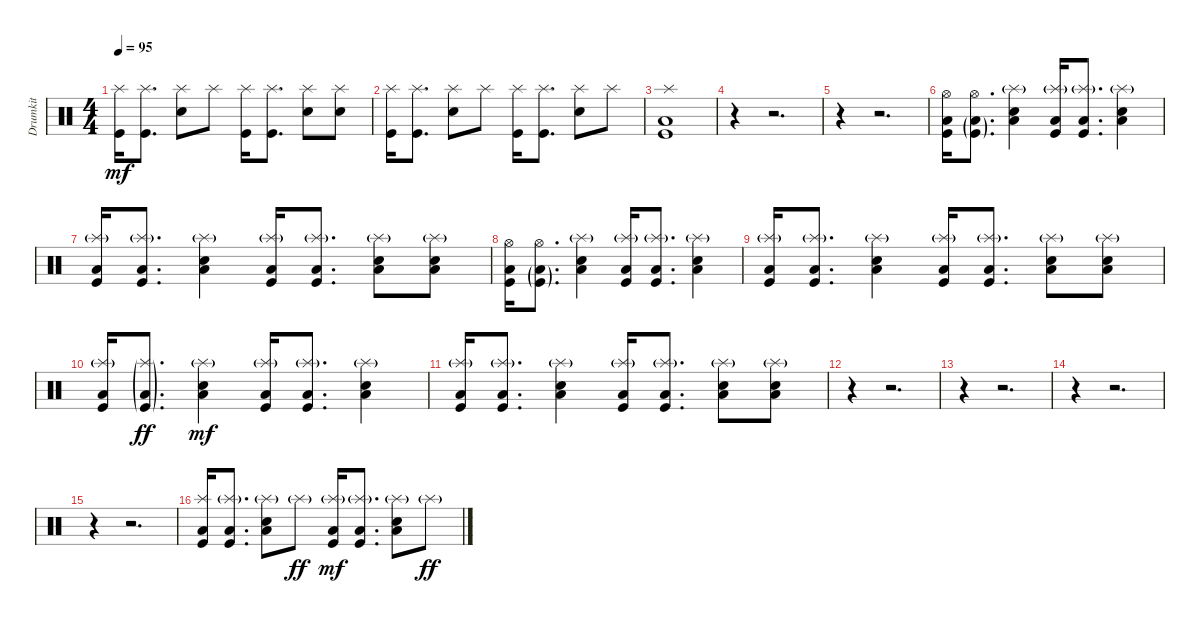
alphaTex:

\track ("Drumkit" "Drumkit") {instrument percussion}
\staff {score}
\articulation defaults
\ts (4 4)
\tempo 95
\clef neutral
\ks c
("Kick (hit)" "Splash (hit)").16{dy mf} ("Kick (hit)" "Splash (hit)").8{d} ("Snare (hit) 2" "Splash (hit)").8 "Splash (hit)".8 ("Kick (hit)" "Splash (hit)").16 ("Kick (hit)" "Splash (hit)").8{d} ("Snare (hit) 2" "Splash (hit)").8 ("Splash (hit)" "Snare (hit) 2").8 |
("Kick (hit)" "Splash (hit)").16 ("Kick (hit)" "Splash (hit)").8{d} ("Snare (hit) 2" "Splash (hit)").8 "Splash (hit)".8 ("Kick (hit)" "Splash (hit)").16 ("Kick (hit)" "Splash (hit)").8{d} ("Snare (hit) 2" "Splash (hit)").8 "Splash (hit)".8 |
("Kick (hit)" "Low Floor Tom (hit)" "Splash (hit)").1 |
r.4 r.2{d} |
r.4 r.2{d} |
("Kick (hit)" "Low Floor Tom (hit)" "Hi-Hat (open)").16 ("Low Floor Tom (hit)"{g} "Kick (hit)"{g} "Hi-Hat (open)").8{d} ("Snare (hit) 2" "Low Floor Tom (hit)" "Splash (hit)"{g}).4 ("Kick (hit)" "Low Floor Tom (hit)" "Splash (hit)"{g}).16 ("Kick (hit)" "Low Floor Tom (hit)" "Splash (hit)"{g}).8{d} ("Snare (hit) 2" "Low Floor Tom (hit)" "Splash (hit)"{g}).4 |
("Kick (hit)" "Low Floor Tom (hit)" "Splash (hit)"{g}).16 ("Kick (hit)" "Low Floor Tom (hit)" "Splash (hit)"{g}).8{d} ("Snare (hit) 2" "Low Floor Tom (hit)" "Splash (hit)"{g}).4 ("Kick (hit)" "Low Floor Tom (hit)" "Splash (hit)"{g}).16 ("Kick (hit)" "Low Floor Tom (hit)" "Splash (hit)"{g}).8{d} ("Snare (hit) 2" "Low Floor Tom (hit)" "Splash (hit)"{g}).8 ("Snare (hit) 2" "Low Floor Tom (hit)" "Splash (hit)"{g}).8 |
("Kick (hit)" "Low Floor Tom (hit)" "Hi-Hat (open)").16 ("Low Floor Tom (hit)"{g} "Kick (hit)"{g} "Hi-Hat (open)").8{d} ("Snare (hit) 2" "Low Floor Tom (hit)" "Splash (hit)"{g}).4 ("Kick (hit)" "Low Floor Tom (hit)" "Splash (hit)"{g}).16 ("Kick (hit)" "Low Floor Tom (hit)" "Splash (hit)"{g}).8{d} ("Snare (hit) 2" "Low Floor Tom (hit)" "Splash (hit)"{g}).4 |
("Kick (hit)" "Low Floor Tom (hit)" "Splash (hit)"{g}).16 ("Kick (hit)" "Low Floor Tom (hit)" "Splash (hit)"{g}).8{d} ("Snare (hit) 2" "Low Floor Tom (hit)" "Splash (hit)"{g}).4 ("Kick (hit)" "Low Floor Tom (hit)" "Splash (hit)"{g}).16 ("Kick (hit)" "Low Floor Tom (hit)" "Splash (hit)"{g}).8{d} ("Snare (hit) 2" "Low Floor Tom (hit)" "Splash (hit)"{g}).8 ("Snare (hit) 2" "Low Floor Tom (hit)" "Splash (hit)"{g}).8 |
("Kick (hit)" "Low Floor Tom (hit)" "Splash (hit)"{g}).16 ("Low Floor Tom (hit)"{g} "Kick (hit)"{g} "Splash (hit)"{g}).8{d dy ff} ("Snare (hit) 2" "Low Floor Tom (hit)" "Splash (hit)"{g}).4{dy mf} ("Kick (hit)" "Low Floor Tom (hit)" "Splash (hit)"{g}).16 ("Kick (hit)" "Low Floor Tom (hit)" "Splash (hit)"{g}).8{d} ("Snare (hit) 2" "Low Floor Tom (hit)" "Splash (hit)"{g}).4 |
("Kick (hit)" "Low Floor Tom (hit)" "Splash (hit)"{g}).16 ("Kick (hit)" "Low Floor Tom (hit)" "Splash (hit)"{g}).8{d} ("Snare (hit) 2" "Low Floor Tom (hit)" "Splash (hit)"{g}).4 ("Kick (hit)" "Low Floor Tom (hit)" "Splash (hit)"{g}).16 ("Kick (hit)" "Low Floor Tom (hit)" "Splash (hit)"{g}).8{d} ("Snare (hit) 2" "Low Floor Tom (hit)" "Splash (hit)"{g}).8 ("Snare (hit) 2" "Low Floor Tom (hit)" "Splash (hit)"{g}).8 |
r.4 r.2{d} |
r.4 r.2{d} |
r.4 r.2{d} |
r.4 r.2{d} |
("Kick (hit)" "Low Floor Tom (hit)" "Splash (hit)").16 ("Kick (hit)" "Low Floor Tom (hit)" "Splash (hit)"{g}).8{d} ("Snare (hit) 2" "Low Floor Tom (hit)" "Splash (hit)"{g}).8 "Splash (hit)"{g}.8{dy ff} ("Kick (hit)" "Low Floor Tom (hit)" "Splash (hit)"{g}).16{dy mf} ("Kick (hit)" "Low Floor Tom (hit)" "Splash (hit)"{g}).8{d} ("Snare (hit) 2" "Low Floor Tom (hit)" "Splash (hit)"{g}).8 "Splash (hit)"{g}.8{dy ff}
